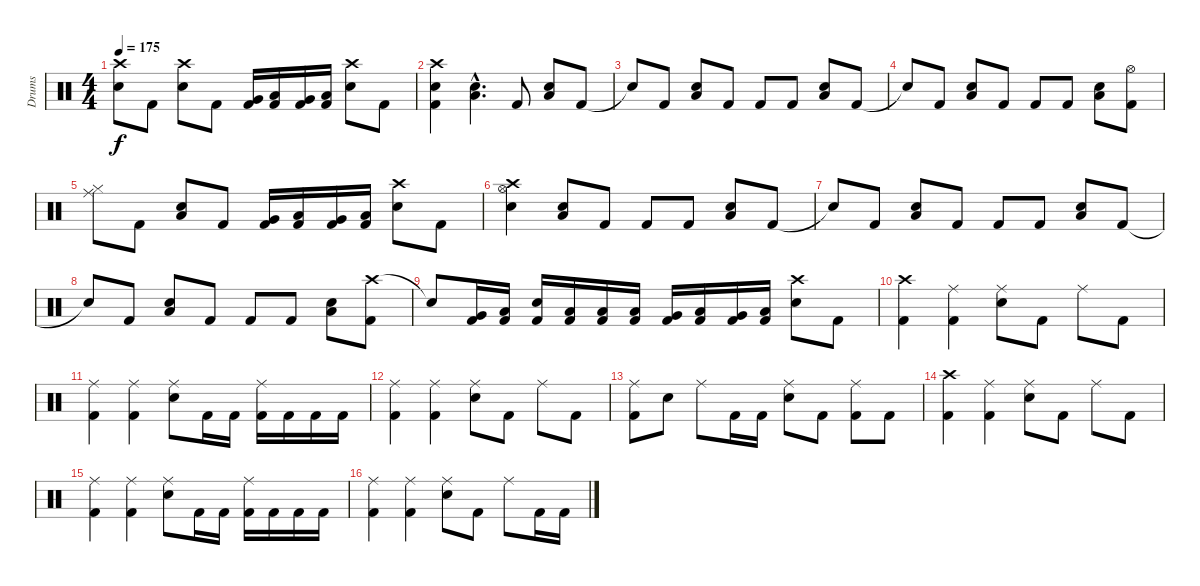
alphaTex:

\track ("Drums" "Drums") {instrument percussion}
\staff {score}
\articulation defaults
\ts (4 4)
\tempo 175
\clef neutral
\ks c
("Crash high (hit)" "Electric Snare (hit)").8{dy f} "Kick (hit) 2".8 ("Crash high (hit)" "Electric Snare (hit)").8 "Kick (hit) 2".8 ("Very Low Tom (hit)" "Kick (hit) 2").16 ("Low Tom (hit)" "Kick (hit) 2").16 ("Very Low Tom (hit)" "Kick (hit) 2").16 ("Low Floor Tom (hit)" "Kick (hit) 2").16 ("Crash high (hit)" "Electric Snare (hit)").8 "Kick (hit) 2".8 |
("Crash high (hit)" "Electric Snare (hit)" "Kick (hit) 2").4 ("Low Floor Tom (hit)"{hac} "Electric Snare (hit)"{hac}).4{d} "Kick (hit) 2".8 ("Low Floor Tom (hit)" "Electric Snare (hit)").8 "Kick (hit) 2".8 |
"Snare (hit)"{t}.8 "Kick (hit) 2".8 ("Low Floor Tom (hit)" "Electric Snare (hit)").8 "Kick (hit) 2".8 "Kick (hit) 2".8 "Kick (hit) 2".8 ("Low Floor Tom (hit)" "Electric Snare (hit)").8 "Kick (hit) 2".8 |
"Snare (hit)"{t}.8 "Kick (hit) 2".8 ("Low Floor Tom (hit)" "Electric Snare (hit)").8 "Kick (hit) 2".8 "Kick (hit) 2".8 "Kick (hit) 2".8 ("Low Floor Tom (hit)" "Electric Snare (hit)").8 ("Hi-Hat (open)" "Kick (hit) 2").8 |
("Ride (middle)" "Hi-Hat (closed)").8 "Kick (hit) 2".8 ("Low Floor Tom (hit)" "Electric Snare (hit)").8 "Kick (hit) 2".8 ("Very Low Tom (hit)" "Kick (hit) 2").16 ("Low Tom (hit)" "Kick (hit) 2").16 ("Very Low Tom (hit)" "Kick (hit) 2").16 ("Low Floor Tom (hit)" "Kick (hit) 2").16 ("Crash high (hit)" "Electric Snare (hit)").8 "Kick (hit) 2".8 |
("Crash high (hit)" "Electric Snare (hit)" "Hi-Hat (open)").4 ("Low Floor Tom (hit)" "Electric Snare (hit)").8 "Kick (hit) 2".8 "Kick (hit) 2".8 "Kick (hit) 2".8 ("Low Floor Tom (hit)" "Electric Snare (hit)").8 "Kick (hit) 2".8 |
"Snare (hit)"{t}.8 "Kick (hit) 2".8 ("Low Floor Tom (hit)" "Electric Snare (hit)").8 "Kick (hit) 2".8 "Kick (hit) 2".8 "Kick (hit) 2".8 ("Low Floor Tom (hit)" "Electric Snare (hit)").8 "Kick (hit) 2".8 |
"Snare (hit)"{t}.8 "Kick (hit) 2".8 ("Low Floor Tom (hit)" "Electric Snare (hit)").8 "Kick (hit) 2".8 "Kick (hit) 2".8 "Kick (hit) 2".8 ("Low Floor Tom (hit)" "Electric Snare (hit)").8 ("Crash high (hit)" "Kick (hit) 2").8 |
"Snare (hit)"{t}.8 ("Very Low Tom (hit)" "Kick (hit) 2").16 ("Low Floor Tom (hit)" "Kick (hit) 2").16 ("Electric Snare (hit)" "Kick (hit) 2").16 ("Low Floor Tom (hit)" "Kick (hit) 2").16 ("Low Floor Tom (hit)" "Kick (hit) 2").16 ("Low Tom (hit)" "Kick (hit) 2").16 ("Very Low Tom (hit)" "Kick (hit) 2").16 ("Low Tom (hit)" "Kick (hit) 2").16 ("Very Low Tom (hit)" "Kick (hit) 2").16 ("Low Floor Tom (hit)" "Kick (hit) 2").16 ("Crash high (hit)" "Electric Snare (hit)").8 "Kick (hit) 2".8 |
("Crash high (hit)" "Kick (hit) 2").4 ("Ride (middle)" "Kick (hit) 2").4 ("Ride (middle)" "Electric Snare (hit)").8 "Kick (hit) 2".8 "Ride (middle)".8 "Kick (hit) 2".8 |
("Ride (middle)" "Kick (hit) 2").4 ("Ride (middle)" "Kick (hit) 2").4 ("Ride (middle)" "Electric Snare (hit)").8 "Kick (hit) 2".16 "Kick (hit) 2".16 ("Ride (middle)" "Kick (hit) 2").16 "Kick (hit) 2".16 "Kick (hit) 2".16 "Kick (hit) 2".16 |
("Ride (middle)" "Kick (hit) 2").4 ("Ride (middle)" "Kick (hit) 2").4 ("Ride (middle)" "Electric Snare (hit)").8 "Kick (hit) 2".8 "Ride (middle)".8 "Kick (hit) 2".8 |
("Ride (middle)" "Kick (hit) 2").8 "Electric Snare (hit)".8 "Ride (middle)".8 "Kick (hit) 2".16 "Kick (hit) 2".16 ("Ride (middle)" "Electric Snare (hit)").8 "Kick (hit) 2".8 ("Ride (middle)" "Kick (hit) 2").8 "Kick (hit) 2".8 |
("Crash high (hit)" "Kick (hit) 2").4 ("Ride (middle)" "Kick (hit) 2").4 ("Ride (middle)" "Electric Snare (hit)").8 "Kick (hit) 2".8 "Ride (middle)".8 "Kick (hit) 2".8 |
("Ride (middle)" "Kick (hit) 2").4 ("Ride (middle)" "Kick (hit) 2").4 ("Ride (middle)" "Electric Snare (hit)").8 "Kick (hit) 2".16 "Kick (hit) 2".16 ("Ride (middle)" "Kick (hit) 2").16 "Kick (hit) 2".16 "Kick (hit) 2".16 "Kick (hit) 2".16 |
("Ride (middle)" "Kick (hit) 2").4 ("Ride (middle)" "Kick (hit) 2").4 ("Ride (middle)" "Electric Snare (hit)").8 "Kick (hit) 2".8 "Ride (middle)".8 "Kick (hit) 2".16 "Kick (hit) 2".16
